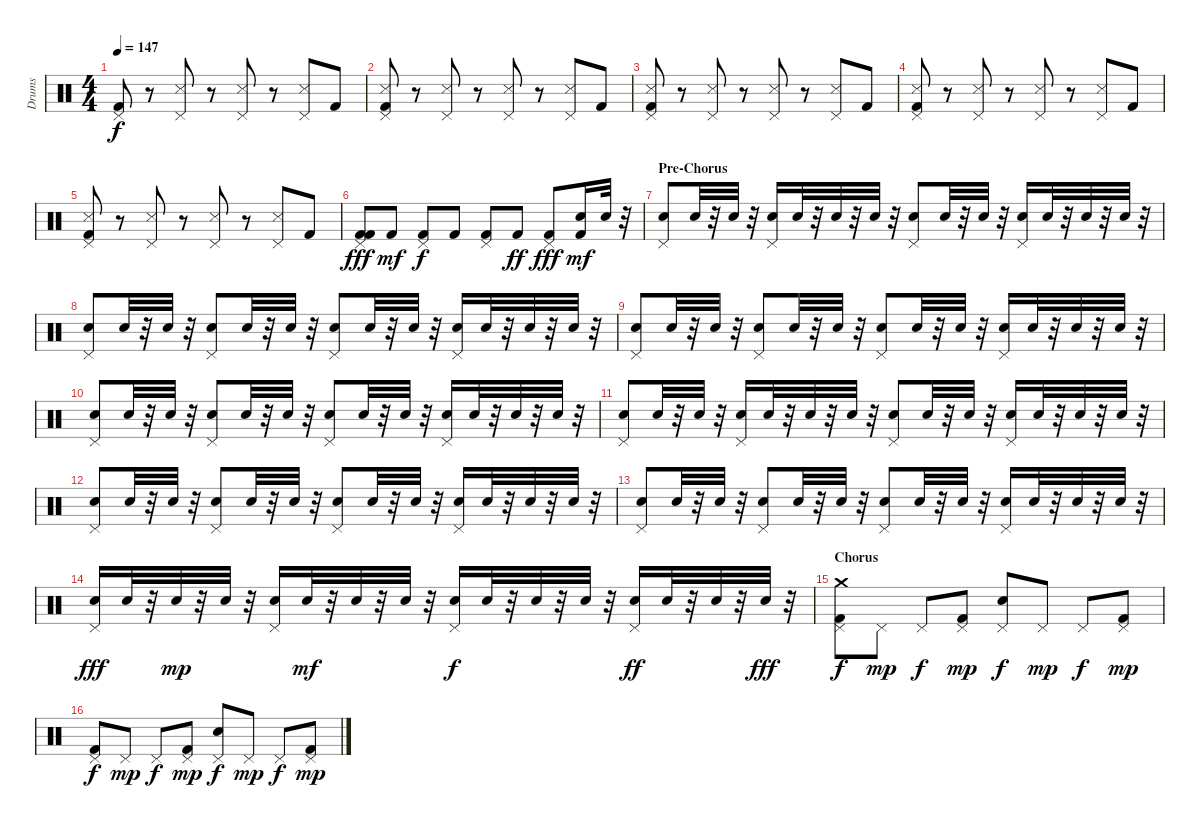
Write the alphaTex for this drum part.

\track ("Drums" "Drums") {instrument percussion}
\staff {score}
\articulation defaults
\ts (4 4)
\tempo 147
\clef neutral
\ks c
("Pedal Hi-Hat (hit)" "Kick (hit) 2").8{dy f} r.8 ("Pedal Hi-Hat (hit)" "Snare (side stick) 3").8 r.8 ("Pedal Hi-Hat (hit)" "Snare (side stick) 3").8 r.8 ("Pedal Hi-Hat (hit)" "Snare (side stick) 3").8 "Kick (hit) 2".8 |
("Pedal Hi-Hat (hit)" "Kick (hit) 2" "Snare (side stick) 3").8 r.8 ("Pedal Hi-Hat (hit)" "Snare (side stick) 3").8 r.8 ("Pedal Hi-Hat (hit)" "Snare (side stick) 3").8 r.8 ("Pedal Hi-Hat (hit)" "Snare (side stick) 3").8 "Kick (hit) 2".8 |
("Pedal Hi-Hat (hit)" "Kick (hit) 2" "Snare (side stick) 3").8 r.8 ("Pedal Hi-Hat (hit)" "Snare (side stick) 3").8 r.8 ("Pedal Hi-Hat (hit)" "Snare (side stick) 3").8 r.8 ("Pedal Hi-Hat (hit)" "Snare (side stick) 3").8 "Kick (hit) 2".8 |
("Pedal Hi-Hat (hit)" "Kick (hit) 2" "Snare (side stick) 3").8 r.8 ("Pedal Hi-Hat (hit)" "Snare (side stick) 3").8 r.8 ("Pedal Hi-Hat (hit)" "Snare (side stick) 3").8 r.8 ("Pedal Hi-Hat (hit)" "Snare (side stick) 3").8 "Kick (hit) 2".8 |
("Pedal Hi-Hat (hit)" "Kick (hit) 2" "Snare (side stick) 3").8 r.8 ("Pedal Hi-Hat (hit)" "Snare (side stick) 3").8 r.8 ("Pedal Hi-Hat (hit)" "Snare (side stick) 3").8 r.8 ("Pedal Hi-Hat (hit)" "Snare (side stick) 3").8 "Kick (hit) 2".8 |
("Pedal Hi-Hat (hit)" "Kick (hit) 2" "Kick (hit) 2").8{dy fff} "Kick (hit) 2".8{dy mf} ("Pedal Hi-Hat (hit)" "Kick (hit) 2").8{dy f} "Kick (hit) 2".8 ("Pedal Hi-Hat (hit)" "Kick (hit) 2").8 "Kick (hit) 2".8{dy ff} ("Pedal Hi-Hat (hit)" "Kick (hit) 2").8{dy fff} ("Kick (hit) 2" "Snare (hit) 2").16{dy mf} "Snare (hit) 2".32 r.32 |
\section ("" "Pre-Chorus")
("Pedal Hi-Hat (hit)" "Snare (hit) 2").8 "Snare (hit) 2".32 r.32 "Snare (hit) 2".32 r.32 ("Pedal Hi-Hat (hit)" "Snare (hit) 2").16 "Snare (hit) 2".32 r.32 "Snare (hit) 2".32 r.32 "Snare (hit) 2".32 r.32 ("Pedal Hi-Hat (hit)" "Snare (hit) 2").8 "Snare (hit) 2".32 r.32 "Snare (hit) 2".32 r.32 ("Pedal Hi-Hat (hit)" "Snare (hit) 2").16 "Snare (hit) 2".32 r.32 "Snare (hit) 2".32 r.32 "Snare (hit) 2".32 r.32 |
("Pedal Hi-Hat (hit)" "Snare (hit) 2").8 "Snare (hit) 2".32 r.32 "Snare (hit) 2".32 r.32 ("Pedal Hi-Hat (hit)" "Snare (hit) 2").8 "Snare (hit) 2".32 r.32 "Snare (hit) 2".32 r.32 ("Pedal Hi-Hat (hit)" "Snare (hit) 2").8 "Snare (hit) 2".32 r.32 "Snare (hit) 2".32 r.32 ("Pedal Hi-Hat (hit)" "Snare (hit) 2").16 "Snare (hit) 2".32 r.32 "Snare (hit) 2".32 r.32 "Snare (hit) 2".32 r.32 |
("Pedal Hi-Hat (hit)" "Snare (hit) 2").8 "Snare (hit) 2".32 r.32 "Snare (hit) 2".32 r.32 ("Pedal Hi-Hat (hit)" "Snare (hit) 2").8 "Snare (hit) 2".32 r.32 "Snare (hit) 2".32 r.32 ("Pedal Hi-Hat (hit)" "Snare (hit) 2").8 "Snare (hit) 2".32 r.32 "Snare (hit) 2".32 r.32 ("Pedal Hi-Hat (hit)" "Snare (hit) 2").16 "Snare (hit) 2".32 r.32 "Snare (hit) 2".32 r.32 "Snare (hit) 2".32 r.32 |
("Pedal Hi-Hat (hit)" "Snare (hit) 2").8 "Snare (hit) 2".32 r.32 "Snare (hit) 2".32 r.32 ("Pedal Hi-Hat (hit)" "Snare (hit) 2").8 "Snare (hit) 2".32 r.32 "Snare (hit) 2".32 r.32 ("Pedal Hi-Hat (hit)" "Snare (hit) 2").8 "Snare (hit) 2".32 r.32 "Snare (hit) 2".32 r.32 ("Pedal Hi-Hat (hit)" "Snare (hit) 2").16 "Snare (hit) 2".32 r.32 "Snare (hit) 2".32 r.32 "Snare (hit) 2".32 r.32 |
("Pedal Hi-Hat (hit)" "Snare (hit) 2").8 "Snare (hit) 2".32 r.32 "Snare (hit) 2".32 r.32 ("Pedal Hi-Hat (hit)" "Snare (hit) 2").16 "Snare (hit) 2".32 r.32 "Snare (hit) 2".32 r.32 "Snare (hit) 2".32 r.32 ("Pedal Hi-Hat (hit)" "Snare (hit) 2").8 "Snare (hit) 2".32 r.32 "Snare (hit) 2".32 r.32 ("Pedal Hi-Hat (hit)" "Snare (hit) 2").16 "Snare (hit) 2".32 r.32 "Snare (hit) 2".32 r.32 "Snare (hit) 2".32 r.32 |
("Pedal Hi-Hat (hit)" "Snare (hit) 2").8 "Snare (hit) 2".32 r.32 "Snare (hit) 2".32 r.32 ("Pedal Hi-Hat (hit)" "Snare (hit) 2").8 "Snare (hit) 2".32 r.32 "Snare (hit) 2".32 r.32 ("Pedal Hi-Hat (hit)" "Snare (hit) 2").8 "Snare (hit) 2".32 r.32 "Snare (hit) 2".32 r.32 ("Pedal Hi-Hat (hit)" "Snare (hit) 2").16 "Snare (hit) 2".32 r.32 "Snare (hit) 2".32 r.32 "Snare (hit) 2".32 r.32 |
("Pedal Hi-Hat (hit)" "Snare (hit) 2").8 "Snare (hit) 2".32 r.32 "Snare (hit) 2".32 r.32 ("Pedal Hi-Hat (hit)" "Snare (hit) 2").8 "Snare (hit) 2".32 r.32 "Snare (hit) 2".32 r.32 ("Pedal Hi-Hat (hit)" "Snare (hit) 2").8 "Snare (hit) 2".32 r.32 "Snare (hit) 2".32 r.32 ("Pedal Hi-Hat (hit)" "Snare (hit) 2").16 "Snare (hit) 2".32 r.32 "Snare (hit) 2".32 r.32 "Snare (hit) 2".32 r.32 |
("Pedal Hi-Hat (hit)" "Snare (hit) 2").16{dy fff} "Snare (hit) 2".32 r.32 "Snare (hit) 2".32{dy mp} r.32 "Snare (hit) 2".32 r.32 ("Pedal Hi-Hat (hit)" "Snare (hit) 2").16 "Snare (hit) 2".32{dy mf} r.32 "Snare (hit) 2".32 r.32 "Snare (hit) 2".32 r.32 ("Pedal Hi-Hat (hit)" "Snare (hit) 2").16{dy f} "Snare (hit) 2".32 r.32 "Snare (hit) 2".32 r.32 "Snare (hit) 2".32 r.32 ("Pedal Hi-Hat (hit)" "Snare (hit) 2").16{dy ff} "Snare (hit) 2".32 r.32 "Snare (hit) 2".32 r.32 "Snare (hit) 2".32{dy fff} r.32 |
\section ("" "Chorus")
("Pedal Hi-Hat (hit)" "Kick (hit) 2" "Crash medium (hit)").8{dy f} "Pedal Hi-Hat (hit)".8{dy mp} "Pedal Hi-Hat (hit)".8{dy f} ("Pedal Hi-Hat (hit)" "Kick (hit) 2").8{dy mp} ("Pedal Hi-Hat (hit)" "Snare (hit) 2").8{dy f} "Pedal Hi-Hat (hit)".8{dy mp} "Pedal Hi-Hat (hit)".8{dy f} ("Pedal Hi-Hat (hit)" "Kick (hit) 2").8{dy mp} |
("Pedal Hi-Hat (hit)" "Kick (hit) 2").8{dy f} "Pedal Hi-Hat (hit)".8{dy mp} "Pedal Hi-Hat (hit)".8{dy f} ("Pedal Hi-Hat (hit)" "Kick (hit) 2").8{dy mp} ("Pedal Hi-Hat (hit)" "Snare (hit) 2").8{dy f} "Pedal Hi-Hat (hit)".8{dy mp} "Pedal Hi-Hat (hit)".8{dy f} ("Pedal Hi-Hat (hit)" "Kick (hit) 2").8{dy mp}
